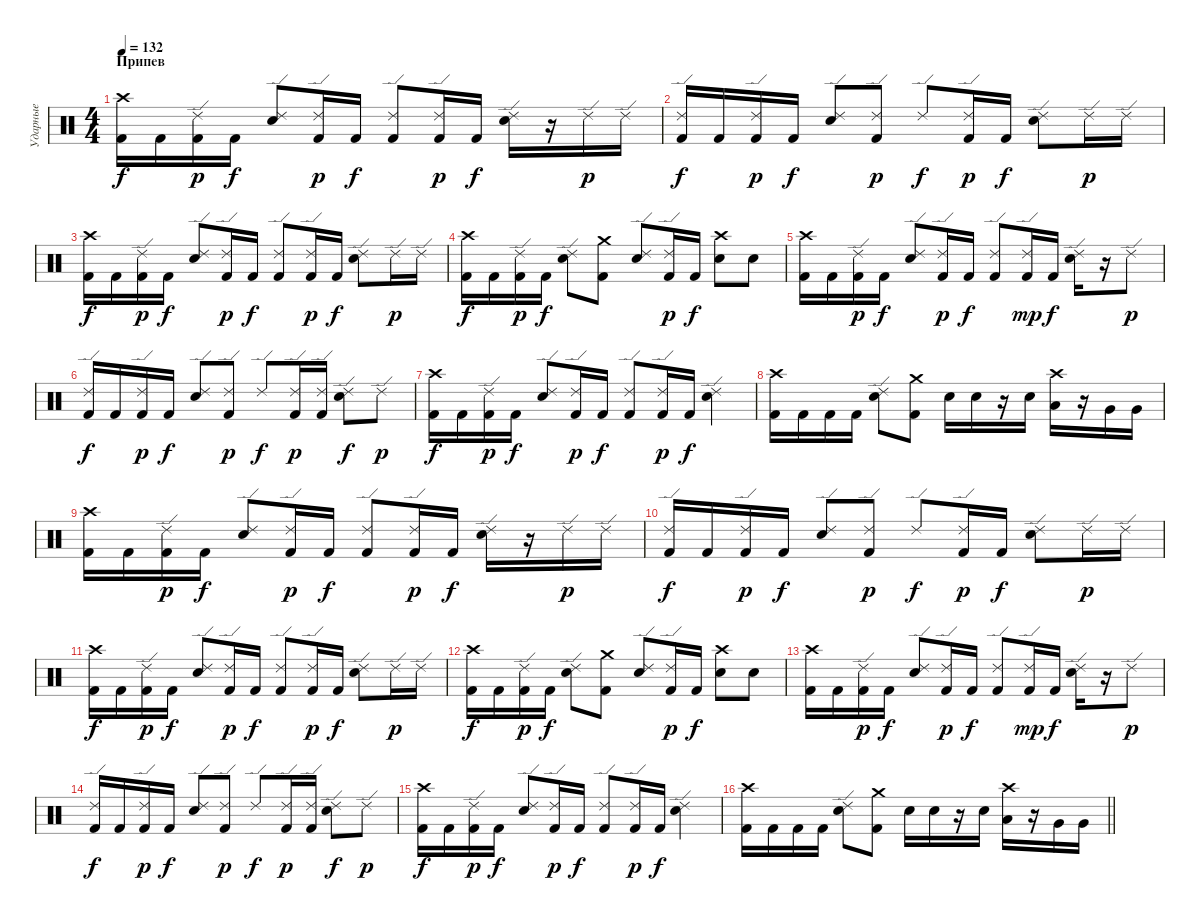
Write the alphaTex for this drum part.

\track ("Ударные" "Ударные") {instrument percussion}
\staff {score}
\articulation defaults
\ts (4 4)
\section ("" "Припев")
\tempo 132
\clef neutral
\ks c
("Crash high (hit)" "Kick (hit) 2").16{dy f} "Kick (hit) 2".16 ("Kick (hit) 2" "Ride (edge) 2").16{dy p} "Kick (hit) 2".16{dy f} ("Electric Snare (hit)" "Ride (edge) 2").8 ("Kick (hit) 2" "Ride (edge) 2").16{dy p} "Kick (hit) 2".16{dy f} ("Kick (hit) 2" "Ride (edge) 2").8 ("Kick (hit) 2" "Ride (edge) 2").16{dy p} "Kick (hit) 2".16{dy f} ("Electric Snare (hit)" "Ride (edge) 2").16 r.16 "Ride (edge) 2".16{dy p} "Ride (edge) 2".16 |
("Kick (hit) 2" "Ride (edge) 2").16{dy f} "Kick (hit) 2".16 ("Kick (hit) 2" "Ride (edge) 2").16{dy p} "Kick (hit) 2".16{dy f} ("Electric Snare (hit)" "Ride (edge) 2").8 ("Kick (hit) 2" "Ride (edge) 2").8{dy p} "Ride (edge) 2".8{dy f} ("Kick (hit) 2" "Ride (edge) 2").16{dy p} "Kick (hit) 2".16{dy f} ("Electric Snare (hit)" "Ride (edge) 2").8 "Ride (edge) 2".16{dy p} "Ride (edge) 2".16 |
("Crash high (hit)" "Kick (hit) 2").16{dy f} "Kick (hit) 2".16 ("Kick (hit) 2" "Ride (edge) 2").16{dy p} "Kick (hit) 2".16{dy f} ("Electric Snare (hit)" "Ride (edge) 2").8 ("Kick (hit) 2" "Ride (edge) 2").16{dy p} "Kick (hit) 2".16{dy f} ("Kick (hit) 2" "Ride (edge) 2").8 ("Kick (hit) 2" "Ride (edge) 2").16{dy p} "Kick (hit) 2".16{dy f} ("Electric Snare (hit)" "Ride (edge) 2").8 "Ride (edge) 2".16{dy p} "Ride (edge) 2".16 |
("Crash high (hit)" "Kick (hit) 2").16{dy f} "Kick (hit) 2".16 ("Kick (hit) 2" "Ride (edge) 2").16{dy p} "Kick (hit) 2".16{dy f} ("Electric Snare (hit)" "Ride (edge) 2").8 ("Crash medium (hit)" "Kick (hit) 2").8 ("Electric Snare (hit)" "Ride (edge) 2").8 ("Kick (hit) 2" "Ride (edge) 2").16{dy p} "Kick (hit) 2".16{dy f} ("Crash high (hit)" "Electric Snare (hit)").8 "Electric Snare (hit)".8 |
("Crash high (hit)" "Kick (hit) 2").16 "Kick (hit) 2".16 ("Kick (hit) 2" "Ride (edge) 2").16{dy p} "Kick (hit) 2".16{dy f} ("Electric Snare (hit)" "Ride (edge) 2").8 ("Kick (hit) 2" "Ride (edge) 2").16{dy p} "Kick (hit) 2".16{dy f} ("Kick (hit) 2" "Ride (edge) 2").8 ("Kick (hit) 2" "Ride (edge) 2").16{dy mp} "Kick (hit) 2".16{dy f} ("Electric Snare (hit)" "Ride (edge) 2").16 r.16 "Ride (edge) 2".8{dy p} |
("Kick (hit) 2" "Ride (edge) 2").16{dy f} "Kick (hit) 2".16 ("Kick (hit) 2" "Ride (edge) 2").16{dy p} "Kick (hit) 2".16{dy f} ("Electric Snare (hit)" "Ride (edge) 2").8 ("Kick (hit) 2" "Ride (edge) 2").8{dy p} "Ride (edge) 2".8{dy f} ("Kick (hit) 2" "Ride (edge) 2").16{dy p} ("Kick (hit) 2" "Ride (edge) 2").16 ("Electric Snare (hit)" "Ride (edge) 2").8{dy f} "Ride (edge) 2".8{dy p} |
("Crash high (hit)" "Kick (hit) 2").16{dy f} "Kick (hit) 2".16 ("Kick (hit) 2" "Ride (edge) 2").16{dy p} "Kick (hit) 2".16{dy f} ("Electric Snare (hit)" "Ride (edge) 2").8 ("Kick (hit) 2" "Ride (edge) 2").16{dy p} "Kick (hit) 2".16{dy f} ("Kick (hit) 2" "Ride (edge) 2").8 ("Kick (hit) 2" "Ride (edge) 2").16{dy p} "Kick (hit) 2".16{dy f} ("Electric Snare (hit)" "Ride (edge) 2").4 |
("Crash high (hit)" "Kick (hit) 2").16 "Kick (hit) 2".16 "Kick (hit) 2".16 "Kick (hit) 2".16 ("Electric Snare (hit)" "Ride (edge) 2").8 ("Crash medium (hit)" "Kick (hit) 2").8 "Electric Snare (hit)".16 "Electric Snare (hit)".16 r.16 "Electric Snare (hit)".16 ("Crash high (hit)" "Low Tom (hit)").16 r.16 "Very Low Tom (hit)".16 "Very Low Tom (hit)".16 |
("Crash high (hit)" "Kick (hit) 2").16 "Kick (hit) 2".16 ("Kick (hit) 2" "Ride (edge) 2").16{dy p} "Kick (hit) 2".16{dy f} ("Electric Snare (hit)" "Ride (edge) 2").8 ("Kick (hit) 2" "Ride (edge) 2").16{dy p} "Kick (hit) 2".16{dy f} ("Kick (hit) 2" "Ride (edge) 2").8 ("Kick (hit) 2" "Ride (edge) 2").16{dy p} "Kick (hit) 2".16{dy f} ("Electric Snare (hit)" "Ride (edge) 2").16 r.16 "Ride (edge) 2".16{dy p} "Ride (edge) 2".16 |
("Kick (hit) 2" "Ride (edge) 2").16{dy f} "Kick (hit) 2".16 ("Kick (hit) 2" "Ride (edge) 2").16{dy p} "Kick (hit) 2".16{dy f} ("Electric Snare (hit)" "Ride (edge) 2").8 ("Kick (hit) 2" "Ride (edge) 2").8{dy p} "Ride (edge) 2".8{dy f} ("Kick (hit) 2" "Ride (edge) 2").16{dy p} "Kick (hit) 2".16{dy f} ("Electric Snare (hit)" "Ride (edge) 2").8 "Ride (edge) 2".16{dy p} "Ride (edge) 2".16 |
("Crash high (hit)" "Kick (hit) 2").16{dy f} "Kick (hit) 2".16 ("Kick (hit) 2" "Ride (edge) 2").16{dy p} "Kick (hit) 2".16{dy f} ("Electric Snare (hit)" "Ride (edge) 2").8 ("Kick (hit) 2" "Ride (edge) 2").16{dy p} "Kick (hit) 2".16{dy f} ("Kick (hit) 2" "Ride (edge) 2").8 ("Kick (hit) 2" "Ride (edge) 2").16{dy p} "Kick (hit) 2".16{dy f} ("Electric Snare (hit)" "Ride (edge) 2").8 "Ride (edge) 2".16{dy p} "Ride (edge) 2".16 |
("Crash high (hit)" "Kick (hit) 2").16{dy f} "Kick (hit) 2".16 ("Kick (hit) 2" "Ride (edge) 2").16{dy p} "Kick (hit) 2".16{dy f} ("Electric Snare (hit)" "Ride (edge) 2").8 ("Crash medium (hit)" "Kick (hit) 2").8 ("Electric Snare (hit)" "Ride (edge) 2").8 ("Kick (hit) 2" "Ride (edge) 2").16{dy p} "Kick (hit) 2".16{dy f} ("Crash high (hit)" "Electric Snare (hit)").8 "Electric Snare (hit)".8 |
("Crash high (hit)" "Kick (hit) 2").16 "Kick (hit) 2".16 ("Kick (hit) 2" "Ride (edge) 2").16{dy p} "Kick (hit) 2".16{dy f} ("Electric Snare (hit)" "Ride (edge) 2").8 ("Kick (hit) 2" "Ride (edge) 2").16{dy p} "Kick (hit) 2".16{dy f} ("Kick (hit) 2" "Ride (edge) 2").8 ("Kick (hit) 2" "Ride (edge) 2").16{dy mp} "Kick (hit) 2".16{dy f} ("Electric Snare (hit)" "Ride (edge) 2").16 r.16 "Ride (edge) 2".8{dy p} |
("Kick (hit) 2" "Ride (edge) 2").16{dy f} "Kick (hit) 2".16 ("Kick (hit) 2" "Ride (edge) 2").16{dy p} "Kick (hit) 2".16{dy f} ("Electric Snare (hit)" "Ride (edge) 2").8 ("Kick (hit) 2" "Ride (edge) 2").8{dy p} "Ride (edge) 2".8{dy f} ("Kick (hit) 2" "Ride (edge) 2").16{dy p} ("Kick (hit) 2" "Ride (edge) 2").16 ("Electric Snare (hit)" "Ride (edge) 2").8{dy f} "Ride (edge) 2".8{dy p} |
("Crash high (hit)" "Kick (hit) 2").16{dy f} "Kick (hit) 2".16 ("Kick (hit) 2" "Ride (edge) 2").16{dy p} "Kick (hit) 2".16{dy f} ("Electric Snare (hit)" "Ride (edge) 2").8 ("Kick (hit) 2" "Ride (edge) 2").16{dy p} "Kick (hit) 2".16{dy f} ("Kick (hit) 2" "Ride (edge) 2").8 ("Kick (hit) 2" "Ride (edge) 2").16{dy p} "Kick (hit) 2".16{dy f} ("Electric Snare (hit)" "Ride (edge) 2").4 |
\barLineRight lightlight
("Crash high (hit)" "Kick (hit) 2").16 "Kick (hit) 2".16 "Kick (hit) 2".16 "Kick (hit) 2".16 ("Electric Snare (hit)" "Ride (edge) 2").8 ("Crash medium (hit)" "Kick (hit) 2").8 "Electric Snare (hit)".16 "Electric Snare (hit)".16 r.16 "Electric Snare (hit)".16 ("Crash high (hit)" "Low Tom (hit)").16 r.16 "Very Low Tom (hit)".16 "Very Low Tom (hit)".16
